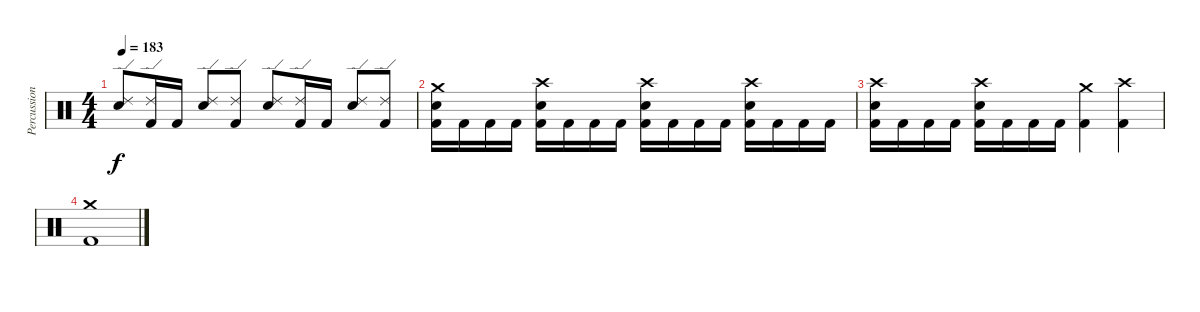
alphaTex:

\track ("Percussion" "Percussion") {instrument percussion}
\staff {score}
\articulation defaults
\ts (4 4)
\tempo 183
\clef neutral
\ks c
("Ride (edge) 2" "Snare (hit) 2").8{dy f} ("Ride (edge) 2" "Kick (hit) 2").16 "Kick (hit) 2".16 ("Ride (edge) 2" "Snare (hit) 2").8 ("Ride (edge) 2" "Kick (hit) 2").8 ("Ride (edge) 2" "Snare (hit) 2").8 ("Ride (edge) 2" "Kick (hit) 2").16 "Kick (hit) 2".16 ("Ride (edge) 2" "Snare (hit) 2").8 ("Ride (edge) 2" "Kick (hit) 2").8 |
("Crash medium (hit)" "Snare (hit) 2" "Kick (hit) 2").16 "Kick (hit) 2".16 "Kick (hit) 2".16 "Kick (hit) 2".16 ("Crash high (hit)" "Snare (hit) 2" "Kick (hit) 2").16 "Kick (hit) 2".16 "Kick (hit) 2".16 "Kick (hit) 2".16 ("Crash high (hit)" "Snare (hit) 2" "Kick (hit) 2").16 "Kick (hit) 2".16 "Kick (hit) 2".16 "Kick (hit) 2".16 ("Crash high (hit)" "Snare (hit) 2" "Kick (hit) 2").16 "Kick (hit) 2".16 "Kick (hit) 2".16 "Kick (hit) 2".16 |
("Crash high (hit)" "Snare (hit) 2" "Kick (hit) 2").16 "Kick (hit) 2".16 "Kick (hit) 2".16 "Kick (hit) 2".16 ("Crash high (hit)" "Snare (hit) 2" "Kick (hit) 2").16 "Kick (hit) 2".16 "Kick (hit) 2".16 "Kick (hit) 2".16 ("Crash medium (hit)" "Kick (hit) 2").4 ("Crash high (hit)" "Kick (hit) 2").4 |
("Crash medium (hit)" "Kick (hit) 2").1
